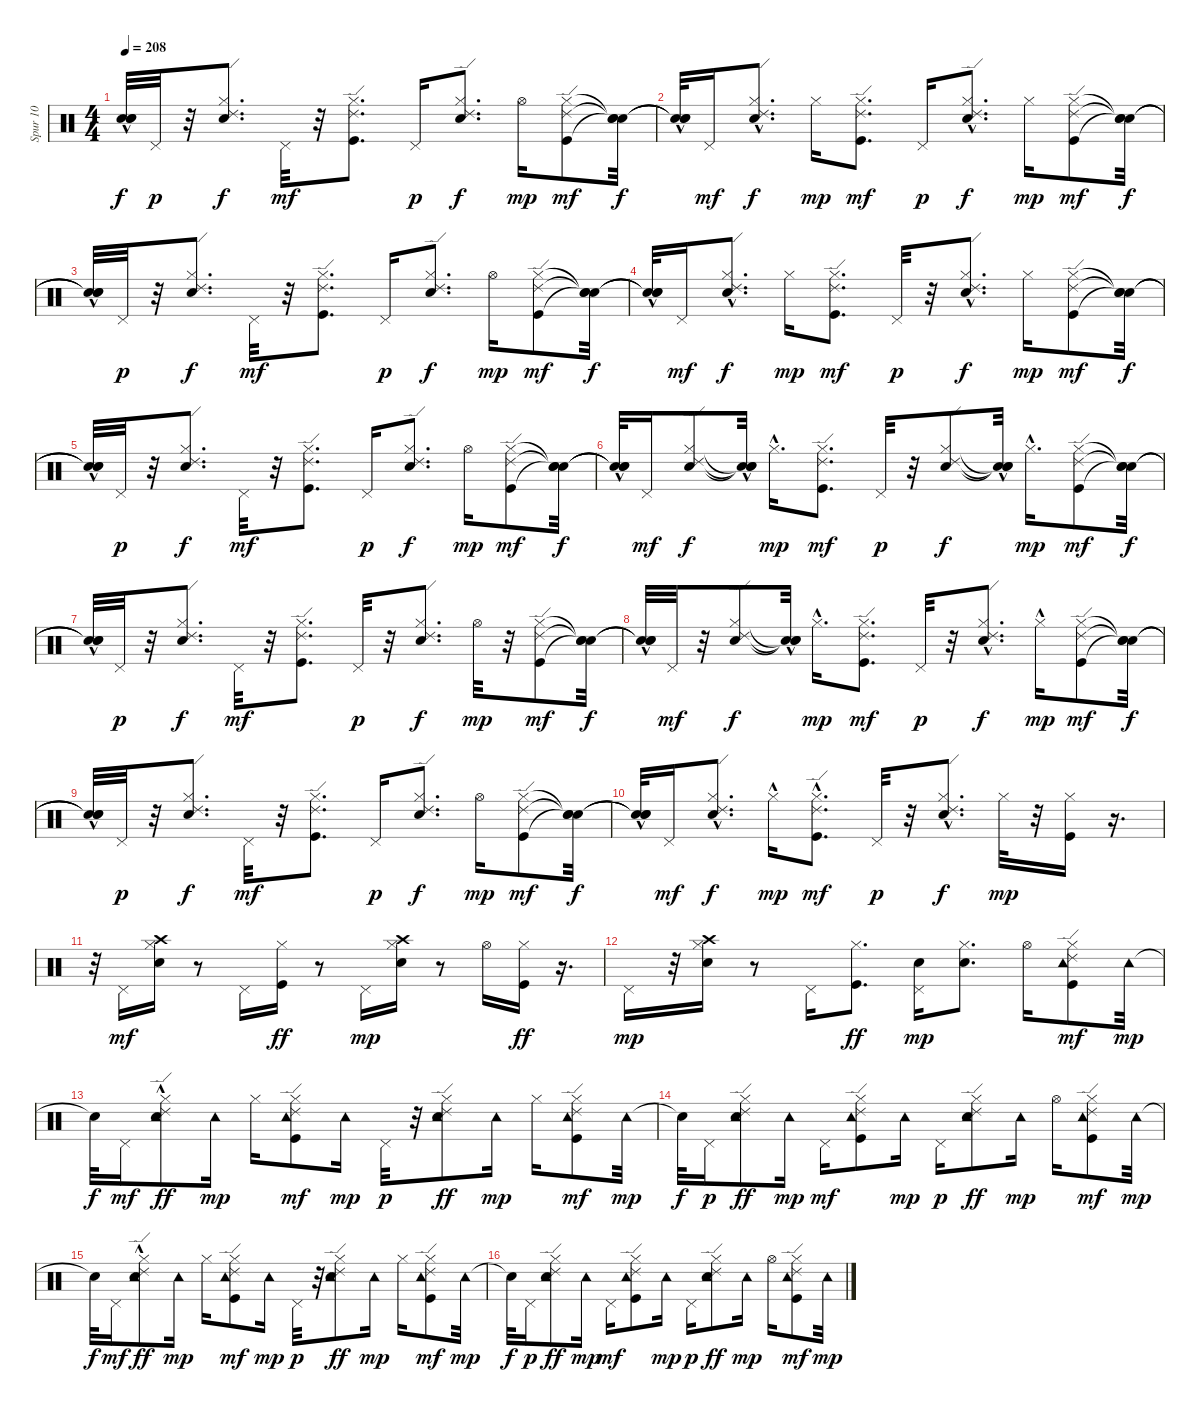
\track ("Spur 10" "Spur 10") {instrument percussion}
\staff {score}
\articulation defaults
\ts (4 4)
\tempo 208
\clef neutral
\ks c
("Snare (hit)"{hac t} "Snare (hit)"{t} "Snare (hit)"{hac t}).32{dy f} "Pedal Hi-Hat (hit)".32{dy p} r.32 ("Snare (hit) 2" "Hi-Hat (closed)" "Ride (edge) 2").8{d dy f} "Pedal Hi-Hat (hit)".32{dy mf} r.32 ("Hi-Hat (closed)" "Kick (hit)" "Ride (edge) 2").8{d} "Pedal Hi-Hat (hit)".16{dy p} ("Snare (hit) 2" "Hi-Hat (closed)" "Ride (edge) 2").8{d dy f} "Hi-Hat (open)".16{dy mp} ("Hi-Hat (closed)" "Kick (hit)" "Ride (edge) 2").8{dy mf} ("Snare (hit)"{t} "Snare (hit)"{t} "Snare (hit)"{t}).32{dy f} |
("Snare (hit)"{hac t} "Snare (hit)"{t} "Snare (hit)"{hac t}).32 "Pedal Hi-Hat (hit)".16{dy mf} ("Hi-Hat (closed)"{hac} "Snare (hit) 2" "Ride (edge) 2").8{d dy f} "Hi-Hat (closed)".16{dy mp} ("Hi-Hat (closed)" "Kick (hit)" "Ride (edge) 2").8{d dy mf} "Pedal Hi-Hat (hit)".16{dy p} ("Hi-Hat (closed)"{hac} "Snare (hit) 2" "Ride (edge) 2").8{d dy f} "Hi-Hat (closed)".16{dy mp} ("Hi-Hat (closed)" "Kick (hit)" "Ride (edge) 2").8{dy mf} ("Snare (hit)"{t} "Snare (hit)"{t} "Snare (hit)"{t}).32{dy f} |
("Snare (hit)"{hac t} "Snare (hit)"{t} "Snare (hit)"{hac t}).32 "Pedal Hi-Hat (hit)".32{dy p} r.32 ("Hi-Hat (closed)" "Snare (hit) 2" "Ride (edge) 2").8{d dy f} "Pedal Hi-Hat (hit)".32{dy mf} r.32 ("Hi-Hat (closed)" "Kick (hit)" "Ride (edge) 2").8{d} "Pedal Hi-Hat (hit)".16{dy p} ("Hi-Hat (closed)" "Snare (hit) 2" "Ride (edge) 2").8{d dy f} "Hi-Hat (open)".16{dy mp} ("Hi-Hat (closed)" "Kick (hit)" "Ride (edge) 2").8{dy mf} ("Snare (hit)"{t} "Snare (hit)"{t} "Snare (hit)"{t}).32{dy f} |
("Snare (hit)"{hac t} "Snare (hit)"{t} "Snare (hit)"{hac t}).32 "Pedal Hi-Hat (hit)".16{dy mf} ("Hi-Hat (closed)"{hac} "Snare (hit) 2" "Ride (edge) 2").8{d dy f} "Hi-Hat (closed)".16{dy mp} ("Hi-Hat (closed)" "Kick (hit)" "Ride (edge) 2").8{d dy mf} "Pedal Hi-Hat (hit)".32{dy p} r.32 ("Hi-Hat (closed)"{hac} "Snare (hit) 2" "Ride (edge) 2").8{d dy f} "Hi-Hat (closed)".16{dy mp} ("Hi-Hat (closed)" "Kick (hit)" "Ride (edge) 2").8{dy mf} ("Snare (hit)"{t} "Snare (hit)"{t} "Snare (hit)"{t}).32{dy f} |
("Snare (hit)"{hac t} "Snare (hit)"{t} "Snare (hit)"{hac t}).32 "Pedal Hi-Hat (hit)".32{dy p} r.32 ("Hi-Hat (closed)" "Snare (hit) 2" "Ride (edge) 2").8{d dy f} "Pedal Hi-Hat (hit)".32{dy mf} r.32 ("Hi-Hat (closed)" "Kick (hit)" "Ride (edge) 2").8{d} "Pedal Hi-Hat (hit)".16{dy p} ("Hi-Hat (closed)" "Snare (hit) 2" "Ride (edge) 2").8{d dy f} "Hi-Hat (open)".16{dy mp} ("Hi-Hat (closed)" "Kick (hit)" "Ride (edge) 2").8{dy mf} ("Snare (hit)"{t} "Snare (hit)"{t} "Snare (hit)"{t}).32{dy f} |
("Snare (hit)"{hac t} "Snare (hit)"{t} "Snare (hit)"{hac t}).32 "Pedal Hi-Hat (hit)".16{dy mf} ("Hi-Hat (closed)" "Snare (hit) 2" "Ride (edge) 2").8{dy f} ("Snare (hit)"{t} "Snare (hit)"{hac t} "Snare (hit)"{t}).32 "Hi-Hat (closed)"{hac}.16{d dy mp} ("Hi-Hat (closed)" "Kick (hit)" "Ride (edge) 2").8{d dy mf} "Pedal Hi-Hat (hit)".32{dy p} r.32 ("Hi-Hat (closed)" "Snare (hit) 2" "Ride (edge) 2").8{dy f} ("Snare (hit)"{t} "Snare (hit)"{hac t} "Snare (hit)"{t}).32 "Hi-Hat (closed)"{hac}.16{d dy mp} ("Hi-Hat (closed)" "Kick (hit)" "Ride (edge) 2").8{dy mf} ("Snare (hit)"{t} "Snare (hit)"{t} "Snare (hit)"{t}).32{dy f} |
("Snare (hit)"{hac t} "Snare (hit)"{t} "Snare (hit)"{hac t}).32 "Pedal Hi-Hat (hit)".32{dy p} r.32 ("Hi-Hat (closed)" "Snare (hit) 2" "Ride (edge) 2").8{d dy f} "Pedal Hi-Hat (hit)".32{dy mf} r.32 ("Hi-Hat (closed)" "Kick (hit)" "Ride (edge) 2").8{d} "Pedal Hi-Hat (hit)".32{dy p} r.32 ("Hi-Hat (closed)" "Snare (hit) 2" "Ride (edge) 2").8{d dy f} "Hi-Hat (open)".32{dy mp} r.32 ("Hi-Hat (closed)" "Kick (hit)" "Ride (edge) 2").8{dy mf} ("Snare (hit)"{t} "Snare (hit)"{t} "Snare (hit)"{t}).32{dy f} |
("Snare (hit)"{hac t} "Snare (hit)"{t} "Snare (hit)"{hac t}).32 "Pedal Hi-Hat (hit)".32{dy mf} r.32 ("Hi-Hat (closed)" "Snare (hit) 2" "Ride (edge) 2").8{dy f} ("Snare (hit)"{t} "Snare (hit)"{hac t} "Snare (hit)"{t}).32 "Hi-Hat (closed)"{hac}.16{d dy mp} ("Hi-Hat (closed)" "Kick (hit)" "Ride (edge) 2").8{d dy mf} "Pedal Hi-Hat (hit)".32{dy p} r.32 ("Hi-Hat (closed)"{hac} "Snare (hit) 2" "Ride (edge) 2").8{d dy f} "Hi-Hat (closed)"{hac}.16{dy mp} ("Hi-Hat (closed)" "Kick (hit)" "Ride (edge) 2").8{dy mf} ("Snare (hit)"{t} "Snare (hit)"{t} "Snare (hit)"{t}).32{dy f} |
("Snare (hit)"{hac t} "Snare (hit)"{t} "Snare (hit)"{hac t}).32 "Pedal Hi-Hat (hit)".32{dy p} r.32 ("Hi-Hat (closed)" "Snare (hit) 2" "Ride (edge) 2").8{d dy f} "Pedal Hi-Hat (hit)".32{dy mf} r.32 ("Hi-Hat (closed)" "Kick (hit)" "Ride (edge) 2").8{d} "Pedal Hi-Hat (hit)".16{dy p} ("Hi-Hat (closed)" "Snare (hit) 2" "Ride (edge) 2").8{d dy f} "Hi-Hat (open)".16{dy mp} ("Hi-Hat (closed)" "Kick (hit)" "Ride (edge) 2").8{dy mf} ("Snare (hit)"{t} "Snare (hit)"{t} "Snare (hit)"{t}).32{dy f} |
("Snare (hit)"{hac t} "Snare (hit)"{t} "Snare (hit)"{hac t}).32 "Pedal Hi-Hat (hit)".16{dy mf} ("Hi-Hat (closed)"{hac} "Snare (hit) 2" "Ride (edge) 2").8{d dy f} "Hi-Hat (closed)"{hac}.16{dy mp} ("Hi-Hat (closed)" "Kick (hit)"{hac} "Ride (edge) 2").8{d dy mf} "Pedal Hi-Hat (hit)".32{dy p} r.32 ("Hi-Hat (closed)"{hac} "Snare (hit) 2"{hac} "Ride (edge) 2").8{d dy f} "Hi-Hat (closed)".32{dy mp} r.32 ("Kick (hit)" "Hi-Hat (closed)").16 r.16{d} |
r.32 "Pedal Hi-Hat (hit)".16{dy mf} ("Hi-Hat (closed)" "Crash high (hit)" "Snare (hit) 2").16 r.8 "Pedal Hi-Hat (hit)".16 ("Hi-Hat (closed)" "Kick (hit)").16{dy ff} r.8 "Pedal Hi-Hat (hit)".16{dy mp} ("Crash high (hit)" "Hi-Hat (closed)" "Snare (hit) 2").16 r.8 "Hi-Hat (open)".16 ("Hi-Hat (closed)" "Kick (hit)").16{dy ff} r.16{d} |
"Pedal Hi-Hat (hit)".16{dy mp} r.32 ("Crash high (hit)" "Hi-Hat (closed)" "Snare (hit) 2").16 r.8 "Pedal Hi-Hat (hit)".16 ("Hi-Hat (closed)" "Kick (hit)").8{d dy ff} ("Pedal Hi-Hat (hit)" "Snare (hit) 2").16{dy mp} ("Hi-Hat (closed)" "Snare (hit) 2").8{d} "Hi-Hat (open)".16 ("Tambourine (hit)" "Hi-Hat (closed)" "Kick (hit)" "Ride (edge) 2").8{dy mf} "Tambourine (hit)".32{dy mp} |
"Snare (hit)"{t}.32{dy f} "Pedal Hi-Hat (hit)".16{dy mf} ("Tambourine (hit)" "Hi-Hat (closed)"{hac} "Electric Snare (hit)" "Ride (edge) 2").8{dy ff} "Tambourine (hit)".16{dy mp} "Hi-Hat (closed)".16 ("Tambourine (hit)" "Hi-Hat (closed)" "Kick (hit)" "Ride (edge) 2").8{dy mf} "Tambourine (hit)".16{dy mp} "Pedal Hi-Hat (hit)".32{dy p} r.32 ("Tambourine (hit)" "Hi-Hat (closed)" "Electric Snare (hit)" "Ride (edge) 2").8{dy ff} "Tambourine (hit)".16{dy mp} "Hi-Hat (closed)".16 ("Tambourine (hit)" "Hi-Hat (closed)" "Kick (hit)" "Ride (edge) 2").8{dy mf} "Tambourine (hit)".32{dy mp} |
"Snare (hit)"{t}.32{dy f} "Pedal Hi-Hat (hit)".16{dy p} ("Tambourine (hit)" "Hi-Hat (closed)" "Electric Snare (hit)" "Ride (edge) 2").8{dy ff} "Tambourine (hit)".16{dy mp} "Pedal Hi-Hat (hit)".16{dy mf} ("Tambourine (hit)" "Hi-Hat (closed)" "Kick (hit)" "Ride (edge) 2").8 "Tambourine (hit)".16{dy mp} "Pedal Hi-Hat (hit)".16{dy p} ("Tambourine (hit)" "Hi-Hat (closed)" "Electric Snare (hit)" "Ride (edge) 2").8{dy ff} "Tambourine (hit)".16{dy mp} "Hi-Hat (open)".16 ("Tambourine (hit)" "Hi-Hat (closed)" "Kick (hit)" "Ride (edge) 2").8{dy mf} "Tambourine (hit)".32{dy mp} |
"Snare (hit)"{t}.32{dy f} "Pedal Hi-Hat (hit)".16{dy mf} ("Tambourine (hit)" "Hi-Hat (closed)"{hac} "Electric Snare (hit)" "Ride (edge) 2").8{dy ff} "Tambourine (hit)".16{dy mp} "Hi-Hat (closed)".16 ("Tambourine (hit)" "Hi-Hat (closed)" "Kick (hit)" "Ride (edge) 2").8{dy mf} "Tambourine (hit)".16{dy mp} "Pedal Hi-Hat (hit)".32{dy p} r.32 ("Tambourine (hit)" "Hi-Hat (closed)" "Electric Snare (hit)" "Ride (edge) 2").8{dy ff} "Tambourine (hit)".16{dy mp} "Hi-Hat (closed)".16 ("Tambourine (hit)" "Hi-Hat (closed)" "Kick (hit)" "Ride (edge) 2").8{dy mf} "Tambourine (hit)".32{dy mp} |
"Snare (hit)"{t}.32{dy f} "Pedal Hi-Hat (hit)".16{dy p} ("Tambourine (hit)" "Hi-Hat (closed)" "Electric Snare (hit)" "Ride (edge) 2").8{dy ff} "Tambourine (hit)".16{dy mp} "Pedal Hi-Hat (hit)".16{dy mf} ("Tambourine (hit)" "Hi-Hat (closed)" "Kick (hit)" "Ride (edge) 2").8 "Tambourine (hit)".16{dy mp} "Pedal Hi-Hat (hit)".16{dy p} ("Tambourine (hit)" "Hi-Hat (closed)" "Electric Snare (hit)" "Ride (edge) 2").8{dy ff} "Tambourine (hit)".16{dy mp} "Hi-Hat (open)".16 ("Tambourine (hit)" "Hi-Hat (closed)" "Kick (hit)" "Ride (edge) 2").8{dy mf} "Tambourine (hit)".32{dy mp}
